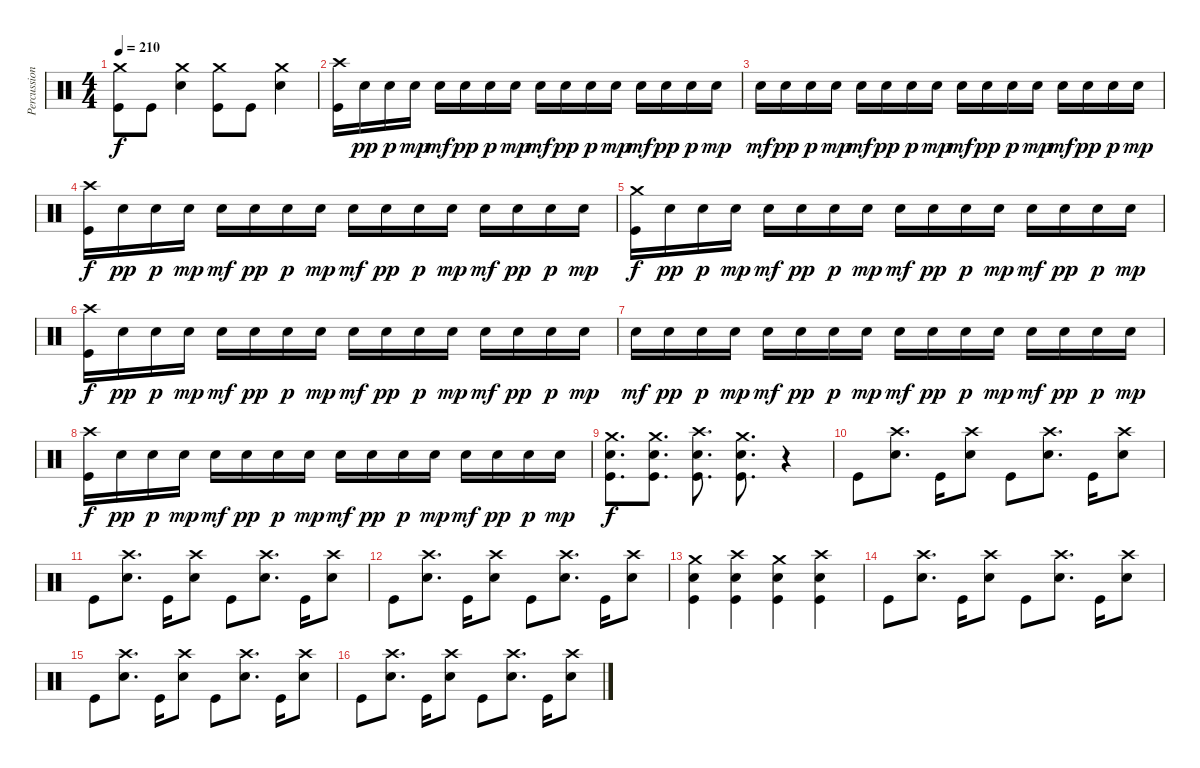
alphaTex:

\track ("Percussions" "Percussion") {instrument percussion}
\staff {score}
\articulation defaults
\ts (4 4)
\tempo 210
\clef neutral
\ks c
("Crash medium (hit)" "Kick (hit)").8{dy f} "Kick (hit)".8 ("Crash medium (hit)" "Snare (hit) 2").4 ("Crash medium (hit)" "Kick (hit)").8 "Kick (hit)".8 ("Crash medium (hit)" "Snare (hit) 2").4 |
("Crash high (hit)" "Kick (hit)").16 "Snare (hit) 2".16{dy pp} "Snare (hit) 2".16{dy p} "Snare (hit) 2".16{dy mp} "Snare (hit) 2".16{dy mf} "Snare (hit) 2".16{dy pp} "Snare (hit) 2".16{dy p} "Snare (hit) 2".16{dy mp} "Snare (hit) 2".16{dy mf} "Snare (hit) 2".16{dy pp} "Snare (hit) 2".16{dy p} "Snare (hit) 2".16{dy mp} "Snare (hit) 2".16{dy mf} "Snare (hit) 2".16{dy pp} "Snare (hit) 2".16{dy p} "Snare (hit) 2".16{dy mp} |
"Snare (hit) 2".16{dy mf} "Snare (hit) 2".16{dy pp} "Snare (hit) 2".16{dy p} "Snare (hit) 2".16{dy mp} "Snare (hit) 2".16{dy mf} "Snare (hit) 2".16{dy pp} "Snare (hit) 2".16{dy p} "Snare (hit) 2".16{dy mp} "Snare (hit) 2".16{dy mf} "Snare (hit) 2".16{dy pp} "Snare (hit) 2".16{dy p} "Snare (hit) 2".16{dy mp} "Snare (hit) 2".16{dy mf} "Snare (hit) 2".16{dy pp} "Snare (hit) 2".16{dy p} "Snare (hit) 2".16{dy mp} |
("Crash high (hit)" "Kick (hit)").16{dy f} "Snare (hit) 2".16{dy pp} "Snare (hit) 2".16{dy p} "Snare (hit) 2".16{dy mp} "Snare (hit) 2".16{dy mf} "Snare (hit) 2".16{dy pp} "Snare (hit) 2".16{dy p} "Snare (hit) 2".16{dy mp} "Snare (hit) 2".16{dy mf} "Snare (hit) 2".16{dy pp} "Snare (hit) 2".16{dy p} "Snare (hit) 2".16{dy mp} "Snare (hit) 2".16{dy mf} "Snare (hit) 2".16{dy pp} "Snare (hit) 2".16{dy p} "Snare (hit) 2".16{dy mp} |
("Crash medium (hit)" "Kick (hit)").16{dy f} "Snare (hit) 2".16{dy pp} "Snare (hit) 2".16{dy p} "Snare (hit) 2".16{dy mp} "Snare (hit) 2".16{dy mf} "Snare (hit) 2".16{dy pp} "Snare (hit) 2".16{dy p} "Snare (hit) 2".16{dy mp} "Snare (hit) 2".16{dy mf} "Snare (hit) 2".16{dy pp} "Snare (hit) 2".16{dy p} "Snare (hit) 2".16{dy mp} "Snare (hit) 2".16{dy mf} "Snare (hit) 2".16{dy pp} "Snare (hit) 2".16{dy p} "Snare (hit) 2".16{dy mp} |
("Crash high (hit)" "Kick (hit)").16{dy f} "Snare (hit) 2".16{dy pp} "Snare (hit) 2".16{dy p} "Snare (hit) 2".16{dy mp} "Snare (hit) 2".16{dy mf} "Snare (hit) 2".16{dy pp} "Snare (hit) 2".16{dy p} "Snare (hit) 2".16{dy mp} "Snare (hit) 2".16{dy mf} "Snare (hit) 2".16{dy pp} "Snare (hit) 2".16{dy p} "Snare (hit) 2".16{dy mp} "Snare (hit) 2".16{dy mf} "Snare (hit) 2".16{dy pp} "Snare (hit) 2".16{dy p} "Snare (hit) 2".16{dy mp} |
"Snare (hit) 2".16{dy mf} "Snare (hit) 2".16{dy pp} "Snare (hit) 2".16{dy p} "Snare (hit) 2".16{dy mp} "Snare (hit) 2".16{dy mf} "Snare (hit) 2".16{dy pp} "Snare (hit) 2".16{dy p} "Snare (hit) 2".16{dy mp} "Snare (hit) 2".16{dy mf} "Snare (hit) 2".16{dy pp} "Snare (hit) 2".16{dy p} "Snare (hit) 2".16{dy mp} "Snare (hit) 2".16{dy mf} "Snare (hit) 2".16{dy pp} "Snare (hit) 2".16{dy p} "Snare (hit) 2".16{dy mp} |
("Crash high (hit)" "Kick (hit)").16{dy f} "Snare (hit) 2".16{dy pp} "Snare (hit) 2".16{dy p} "Snare (hit) 2".16{dy mp} "Snare (hit) 2".16{dy mf} "Snare (hit) 2".16{dy pp} "Snare (hit) 2".16{dy p} "Snare (hit) 2".16{dy mp} "Snare (hit) 2".16{dy mf} "Snare (hit) 2".16{dy pp} "Snare (hit) 2".16{dy p} "Snare (hit) 2".16{dy mp} "Snare (hit) 2".16{dy mf} "Snare (hit) 2".16{dy pp} "Snare (hit) 2".16{dy p} "Snare (hit) 2".16{dy mp} |
("Crash medium (hit)" "Snare (hit) 2" "Kick (hit)").8{d dy f} ("Crash medium (hit)" "Snare (hit) 2" "Kick (hit)").8{d} ("Crash high (hit)" "Snare (hit) 2" "Kick (hit)").8{d} ("Crash medium (hit)" "Snare (hit) 2" "Kick (hit)").8{d} r.4 |
"Kick (hit)".8 ("Crash high (hit)" "Snare (hit) 2").8{d} "Kick (hit)".16 ("Crash high (hit)" "Snare (hit) 2").8 "Kick (hit)".8 ("Crash high (hit)" "Snare (hit) 2").8{d} "Kick (hit)".16 ("Crash high (hit)" "Snare (hit) 2").8 |
"Kick (hit)".8 ("Crash high (hit)" "Snare (hit) 2").8{d} "Kick (hit)".16 ("Crash high (hit)" "Snare (hit) 2").8 "Kick (hit)".8 ("Crash high (hit)" "Snare (hit) 2").8{d} "Kick (hit)".16 ("Crash high (hit)" "Snare (hit) 2").8 |
"Kick (hit)".8 ("Crash high (hit)" "Snare (hit) 2").8{d} "Kick (hit)".16 ("Crash high (hit)" "Snare (hit) 2").8 "Kick (hit)".8 ("Crash high (hit)" "Snare (hit) 2").8{d} "Kick (hit)".16 ("Crash high (hit)" "Snare (hit) 2").8 |
("Crash medium (hit)" "Snare (hit) 2" "Kick (hit)").4 ("Crash high (hit)" "Snare (hit) 2" "Kick (hit)").4 ("Crash medium (hit)" "Snare (hit) 2" "Kick (hit)").4 ("Crash high (hit)" "Snare (hit) 2" "Kick (hit)").4 |
"Kick (hit)".8 ("Crash high (hit)" "Snare (hit) 2").8{d} "Kick (hit)".16 ("Crash high (hit)" "Snare (hit) 2").8 "Kick (hit)".8 ("Crash high (hit)" "Snare (hit) 2").8{d} "Kick (hit)".16 ("Crash high (hit)" "Snare (hit) 2").8 |
"Kick (hit)".8 ("Crash high (hit)" "Snare (hit) 2").8{d} "Kick (hit)".16 ("Crash high (hit)" "Snare (hit) 2").8 "Kick (hit)".8 ("Crash high (hit)" "Snare (hit) 2").8{d} "Kick (hit)".16 ("Crash high (hit)" "Snare (hit) 2").8 |
"Kick (hit)".8 ("Crash high (hit)" "Snare (hit) 2").8{d} "Kick (hit)".16 ("Crash high (hit)" "Snare (hit) 2").8 "Kick (hit)".8 ("Crash high (hit)" "Snare (hit) 2").8{d} "Kick (hit)".16 ("Crash high (hit)" "Snare (hit) 2").8
